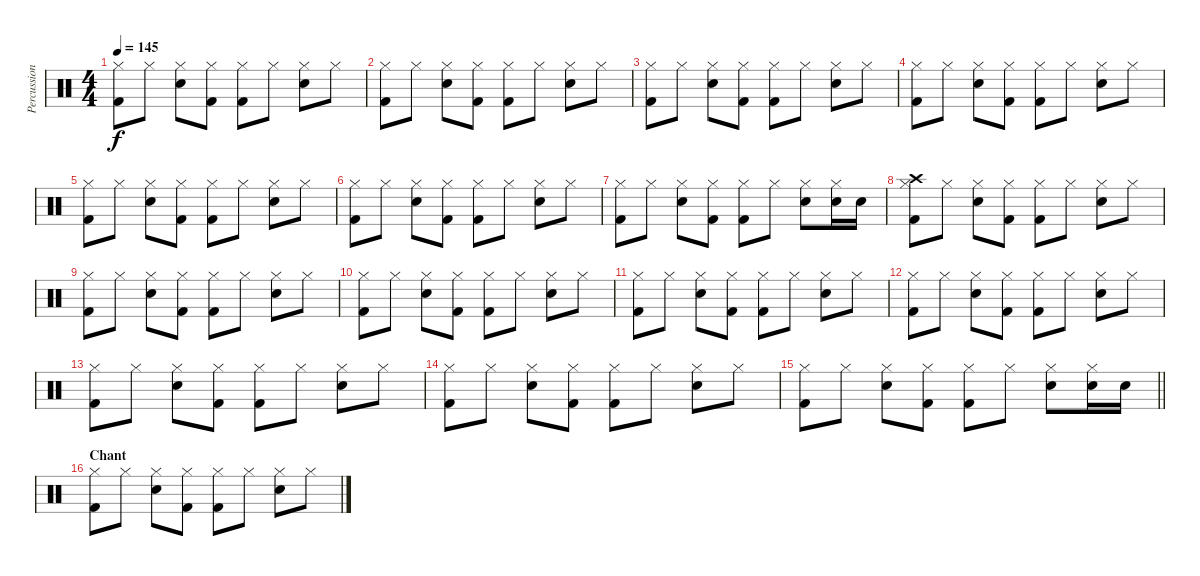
\track ("Percussion" "Percussion") {instrument percussion}
\staff {score}
\articulation defaults
\ts (4 4)
\tempo 145
\clef neutral
\ks c
("Hi-Hat (closed)" "Kick (hit) 2").8{dy f} "Hi-Hat (closed)".8 ("Hi-Hat (closed)" "Electric Snare (hit)").8 ("Hi-Hat (closed)" "Kick (hit) 2").8 ("Hi-Hat (closed)" "Kick (hit) 2").8 "Hi-Hat (closed)".8 ("Hi-Hat (closed)" "Electric Snare (hit)").8 "Hi-Hat (closed)".8 |
("Hi-Hat (closed)" "Kick (hit) 2").8 "Hi-Hat (closed)".8 ("Hi-Hat (closed)" "Electric Snare (hit)").8 ("Hi-Hat (closed)" "Kick (hit) 2").8 ("Hi-Hat (closed)" "Kick (hit) 2").8 "Hi-Hat (closed)".8 ("Hi-Hat (closed)" "Electric Snare (hit)").8 "Hi-Hat (closed)".8 |
("Hi-Hat (closed)" "Kick (hit) 2").8 "Hi-Hat (closed)".8 ("Hi-Hat (closed)" "Electric Snare (hit)").8 ("Hi-Hat (closed)" "Kick (hit) 2").8 ("Hi-Hat (closed)" "Kick (hit) 2").8 "Hi-Hat (closed)".8 ("Hi-Hat (closed)" "Electric Snare (hit)").8 "Hi-Hat (closed)".8 |
("Hi-Hat (closed)" "Kick (hit) 2").8 "Hi-Hat (closed)".8 ("Hi-Hat (closed)" "Electric Snare (hit)").8 ("Hi-Hat (closed)" "Kick (hit) 2").8 ("Hi-Hat (closed)" "Kick (hit) 2").8 "Hi-Hat (closed)".8 ("Hi-Hat (closed)" "Electric Snare (hit)").8 "Hi-Hat (closed)".8 |
("Hi-Hat (closed)" "Kick (hit) 2").8 "Hi-Hat (closed)".8 ("Hi-Hat (closed)" "Electric Snare (hit)").8 ("Hi-Hat (closed)" "Kick (hit) 2").8 ("Hi-Hat (closed)" "Kick (hit) 2").8 "Hi-Hat (closed)".8 ("Hi-Hat (closed)" "Electric Snare (hit)").8 "Hi-Hat (closed)".8 |
("Hi-Hat (closed)" "Kick (hit) 2").8 "Hi-Hat (closed)".8 ("Hi-Hat (closed)" "Electric Snare (hit)").8 ("Hi-Hat (closed)" "Kick (hit) 2").8 ("Hi-Hat (closed)" "Kick (hit) 2").8 "Hi-Hat (closed)".8 ("Hi-Hat (closed)" "Electric Snare (hit)").8 "Hi-Hat (closed)".8 |
("Hi-Hat (closed)" "Kick (hit) 2").8 "Hi-Hat (closed)".8 ("Hi-Hat (closed)" "Electric Snare (hit)").8 ("Hi-Hat (closed)" "Kick (hit) 2").8 ("Hi-Hat (closed)" "Kick (hit) 2").8 "Hi-Hat (closed)".8 ("Hi-Hat (closed)" "Electric Snare (hit)").8 ("Hi-Hat (closed)" "Electric Snare (hit)").16 "Electric Snare (hit)".16 |
("Crash high (hit)" "Hi-Hat (closed)" "Kick (hit) 2").8 "Hi-Hat (closed)".8 ("Hi-Hat (closed)" "Electric Snare (hit)").8 ("Hi-Hat (closed)" "Kick (hit) 2").8 ("Hi-Hat (closed)" "Kick (hit) 2").8 "Hi-Hat (closed)".8 ("Hi-Hat (closed)" "Electric Snare (hit)").8 "Hi-Hat (closed)".8 |
("Hi-Hat (closed)" "Kick (hit) 2").8 "Hi-Hat (closed)".8 ("Hi-Hat (closed)" "Electric Snare (hit)").8 ("Hi-Hat (closed)" "Kick (hit) 2").8 ("Hi-Hat (closed)" "Kick (hit) 2").8 "Hi-Hat (closed)".8 ("Hi-Hat (closed)" "Electric Snare (hit)").8 "Hi-Hat (closed)".8 |
("Hi-Hat (closed)" "Kick (hit) 2").8 "Hi-Hat (closed)".8 ("Hi-Hat (closed)" "Electric Snare (hit)").8 ("Hi-Hat (closed)" "Kick (hit) 2").8 ("Hi-Hat (closed)" "Kick (hit) 2").8 "Hi-Hat (closed)".8 ("Hi-Hat (closed)" "Electric Snare (hit)").8 "Hi-Hat (closed)".8 |
("Hi-Hat (closed)" "Kick (hit) 2").8 "Hi-Hat (closed)".8 ("Hi-Hat (closed)" "Electric Snare (hit)").8 ("Hi-Hat (closed)" "Kick (hit) 2").8 ("Hi-Hat (closed)" "Kick (hit) 2").8 "Hi-Hat (closed)".8 ("Hi-Hat (closed)" "Electric Snare (hit)").8 "Hi-Hat (closed)".8 |
("Hi-Hat (closed)" "Kick (hit) 2").8 "Hi-Hat (closed)".8 ("Hi-Hat (closed)" "Electric Snare (hit)").8 ("Hi-Hat (closed)" "Kick (hit) 2").8 ("Hi-Hat (closed)" "Kick (hit) 2").8 "Hi-Hat (closed)".8 ("Hi-Hat (closed)" "Electric Snare (hit)").8 "Hi-Hat (closed)".8 |
("Hi-Hat (closed)" "Kick (hit) 2").8 "Hi-Hat (closed)".8 ("Hi-Hat (closed)" "Electric Snare (hit)").8 ("Hi-Hat (closed)" "Kick (hit) 2").8 ("Hi-Hat (closed)" "Kick (hit) 2").8 "Hi-Hat (closed)".8 ("Hi-Hat (closed)" "Electric Snare (hit)").8 "Hi-Hat (closed)".8 |
("Hi-Hat (closed)" "Kick (hit) 2").8 "Hi-Hat (closed)".8 ("Hi-Hat (closed)" "Electric Snare (hit)").8 ("Hi-Hat (closed)" "Kick (hit) 2").8 ("Hi-Hat (closed)" "Kick (hit) 2").8 "Hi-Hat (closed)".8 ("Hi-Hat (closed)" "Electric Snare (hit)").8 "Hi-Hat (closed)".8 |
\barLineRight lightlight
("Hi-Hat (closed)" "Kick (hit) 2").8 "Hi-Hat (closed)".8 ("Hi-Hat (closed)" "Electric Snare (hit)").8 ("Hi-Hat (closed)" "Kick (hit) 2").8 ("Hi-Hat (closed)" "Kick (hit) 2").8 "Hi-Hat (closed)".8 ("Hi-Hat (closed)" "Electric Snare (hit)").8 ("Hi-Hat (closed)" "Electric Snare (hit)").16 "Electric Snare (hit)".16 |
\section ("" "Chant")
("Hi-Hat (closed)" "Kick (hit) 2").8 "Hi-Hat (closed)".8 ("Hi-Hat (closed)" "Electric Snare (hit)").8 ("Hi-Hat (closed)" "Kick (hit) 2").8 ("Hi-Hat (closed)" "Kick (hit) 2").8 "Hi-Hat (closed)".8 ("Hi-Hat (closed)" "Electric Snare (hit)").8 "Hi-Hat (closed)".8
